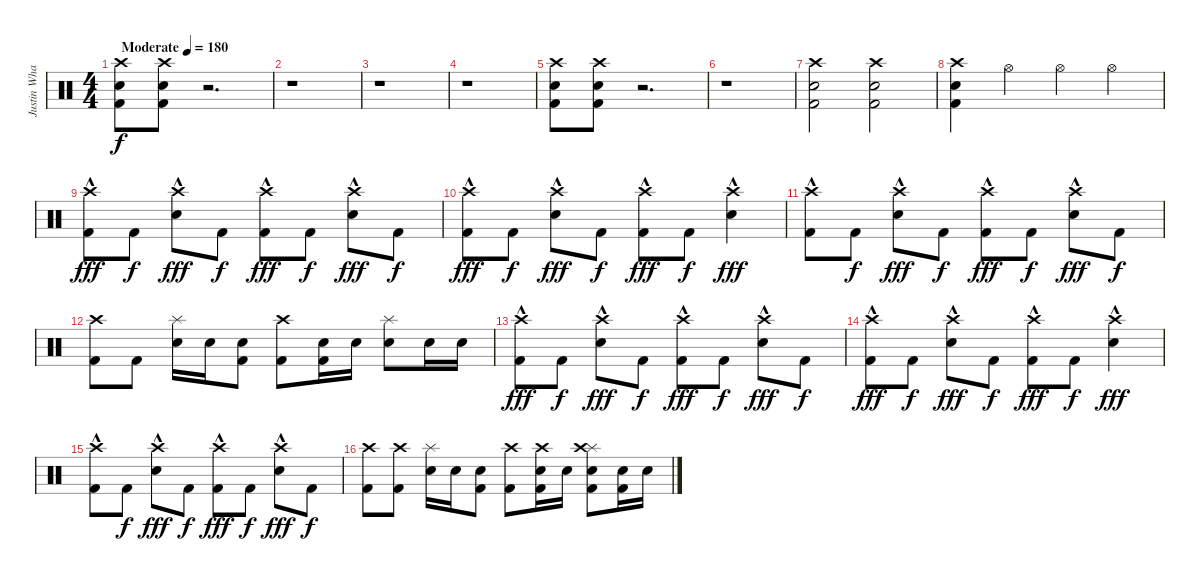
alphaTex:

\track ("Justin Wharton" "Justin Wha") {instrument percussion}
\staff {score}
\articulation defaults
\ts (4 4)
\tempo (180 "Moderate")
\clef neutral
\ks c
("Kick (hit) 2" "Electric Snare (hit)" "Crash high (hit)").8{dy f} ("Kick (hit) 2" "Electric Snare (hit)" "Crash high (hit)").8 r.2{d} |
r.1 |
r.1 |
r.1 |
("Kick (hit) 2" "Electric Snare (hit)" "Crash high (hit)").8 ("Kick (hit) 2" "Electric Snare (hit)" "Crash high (hit)").8 r.2{d} |
r.1 |
("Kick (hit) 2" "Electric Snare (hit)" "Crash high (hit)").2 ("Kick (hit) 2" "Electric Snare (hit)" "Crash high (hit)").2 |
("Kick (hit) 2" "Electric Snare (hit)" "Crash high (hit)").4 "Hi-Hat (open)".4 "Hi-Hat (open)".4 "Hi-Hat (open)".4 |
("Kick (hit) 2" "Crash high (hit)"{hac}).8{dy fff} "Kick (hit) 2".8{dy f} ("Electric Snare (hit)" "Crash high (hit)"{hac}).8{dy fff} "Kick (hit) 2".8{dy f} ("Kick (hit) 2" "Crash high (hit)"{hac}).8{dy fff} "Kick (hit) 2".8{dy f} ("Electric Snare (hit)" "Crash high (hit)"{hac}).8{dy fff} "Kick (hit) 2".8{dy f} |
("Kick (hit) 2" "Crash high (hit)"{hac}).8{dy fff} "Kick (hit) 2".8{dy f} ("Electric Snare (hit)" "Crash high (hit)"{hac}).8{dy fff} "Kick (hit) 2".8{dy f} ("Kick (hit) 2" "Crash high (hit)"{hac}).8{dy fff} "Kick (hit) 2".8{dy f} ("Electric Snare (hit)" "Crash high (hit)"{hac}).4{dy fff} |
("Kick (hit) 2" "Crash high (hit)"{hac}).8 "Kick (hit) 2".8{dy f} ("Electric Snare (hit)" "Crash high (hit)"{hac}).8{dy fff} "Kick (hit) 2".8{dy f} ("Kick (hit) 2" "Crash high (hit)"{hac}).8{dy fff} "Kick (hit) 2".8{dy f} ("Electric Snare (hit)" "Crash high (hit)"{hac}).8{dy fff} "Kick (hit) 2".8{dy f} |
("Kick (hit) 2" "Crash high (hit)").8 "Kick (hit) 2".8 ("Electric Snare (hit)" "Splash (hit)").16 "Electric Snare (hit)".16 ("Kick (hit) 2" "Electric Snare (hit)").8 ("Kick (hit) 2" "Crash high (hit)").8 ("Kick (hit) 2" "Electric Snare (hit)").16 "Electric Snare (hit)".16 ("Electric Snare (hit)" "Splash (hit)").8 "Electric Snare (hit)".16 "Electric Snare (hit)".16 |
("Kick (hit) 2" "Crash high (hit)"{hac}).8{dy fff} "Kick (hit) 2".8{dy f} ("Electric Snare (hit)" "Crash high (hit)"{hac}).8{dy fff} "Kick (hit) 2".8{dy f} ("Kick (hit) 2" "Crash high (hit)"{hac}).8{dy fff} "Kick (hit) 2".8{dy f} ("Electric Snare (hit)" "Crash high (hit)"{hac}).8{dy fff} "Kick (hit) 2".8{dy f} |
("Kick (hit) 2" "Crash high (hit)"{hac}).8{dy fff} "Kick (hit) 2".8{dy f} ("Electric Snare (hit)" "Crash high (hit)"{hac}).8{dy fff} "Kick (hit) 2".8{dy f} ("Kick (hit) 2" "Crash high (hit)"{hac}).8{dy fff} "Kick (hit) 2".8{dy f} ("Electric Snare (hit)" "Crash high (hit)"{hac}).4{dy fff} |
("Kick (hit) 2" "Crash high (hit)"{hac}).8 "Kick (hit) 2".8{dy f} ("Electric Snare (hit)" "Crash high (hit)"{hac}).8{dy fff} "Kick (hit) 2".8{dy f} ("Kick (hit) 2" "Crash high (hit)"{hac}).8{dy fff} "Kick (hit) 2".8{dy f} ("Electric Snare (hit)" "Crash high (hit)"{hac}).8{dy fff} "Kick (hit) 2".8{dy f} |
("Kick (hit) 2" "Crash high (hit)").8 ("Kick (hit) 2" "Crash high (hit)").8 ("Electric Snare (hit)" "Splash (hit)").16 "Electric Snare (hit)".16 ("Kick (hit) 2" "Electric Snare (hit)").8 ("Kick (hit) 2" "Crash high (hit)").8 ("Kick (hit) 2" "Electric Snare (hit)" "Crash high (hit)").16 "Electric Snare (hit)".16 ("Kick (hit) 2" "Electric Snare (hit)" "Splash (hit)" "Crash high (hit)").8 ("Kick (hit) 2" "Electric Snare (hit)").16 "Electric Snare (hit)".16
